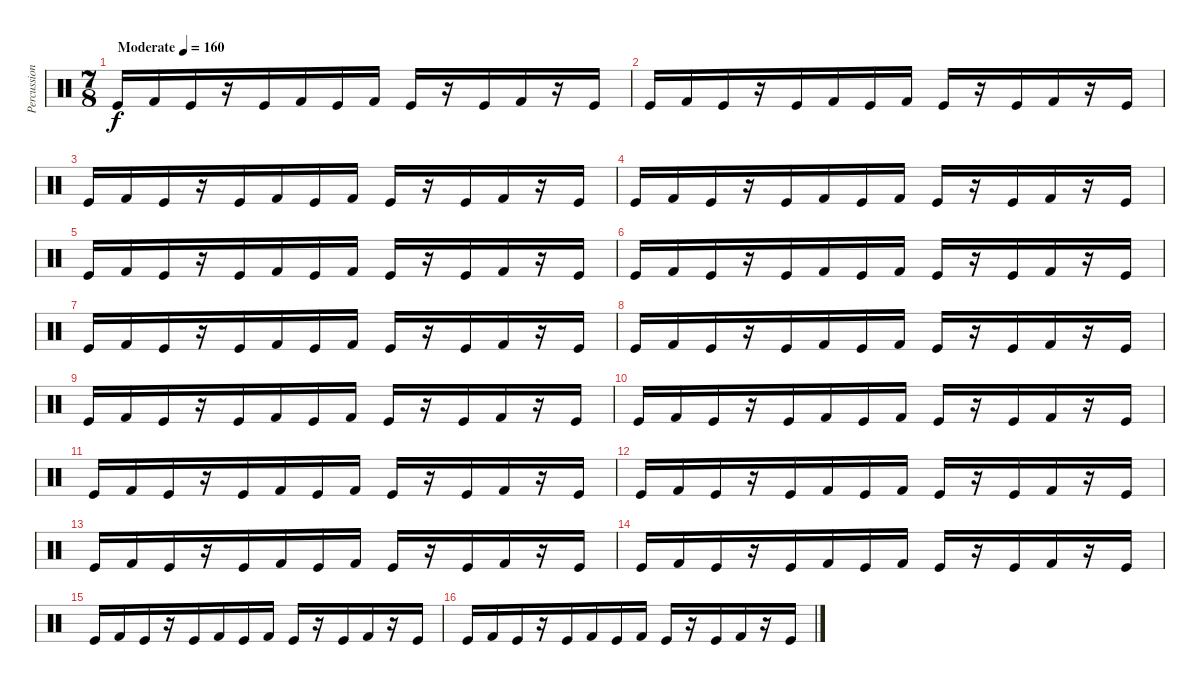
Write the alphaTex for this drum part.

\track ("Percussion" "Percussion") {instrument percussion}
\staff {score}
\articulation defaults
\ts (7 8)
\tempo (160 "Moderate")
\clef neutral
\ks c "Kick (hit)".16{dy f} "Kick (hit) 2".16 "Kick (hit)".16
r.16 "Kick (hit)".16 "Kick (hit) 2".16 "Kick (hit)".16 "Kick (hit) 2".16 "Kick (hit)".16 r.16 "Kick (hit)".16 "Kick (hit) 2".16 r.16 "Kick (hit)".16 |
"Kick (hit)".16 "Kick (hit) 2".16 "Kick (hit)".16 r.16 "Kick (hit)".16 "Kick (hit) 2".16 "Kick (hit)".16 "Kick (hit) 2".16 "Kick (hit)".16 r.16 "Kick (hit)".16 "Kick (hit) 2".16 r.16 "Kick (hit)".16 |
"Kick (hit)".16 "Kick (hit) 2".16 "Kick (hit)".16 r.16 "Kick (hit)".16 "Kick (hit) 2".16 "Kick (hit)".16 "Kick (hit) 2".16 "Kick (hit)".16 r.16 "Kick (hit)".16 "Kick (hit) 2".16 r.16 "Kick (hit)".16 |
"Kick (hit)".16 "Kick (hit) 2".16 "Kick (hit)".16 r.16 "Kick (hit)".16 "Kick (hit) 2".16 "Kick (hit)".16 "Kick (hit) 2".16 "Kick (hit)".16 r.16 "Kick (hit)".16 "Kick (hit) 2".16 r.16 "Kick (hit)".16 |
"Kick (hit)".16 "Kick (hit) 2".16 "Kick (hit)".16 r.16 "Kick (hit)".16 "Kick (hit) 2".16 "Kick (hit)".16 "Kick (hit) 2".16 "Kick (hit)".16 r.16 "Kick (hit)".16 "Kick (hit) 2".16 r.16 "Kick (hit)".16 |
"Kick (hit)".16 "Kick (hit) 2".16 "Kick (hit)".16 r.16 "Kick (hit)".16 "Kick (hit) 2".16 "Kick (hit)".16 "Kick (hit) 2".16 "Kick (hit)".16 r.16 "Kick (hit)".16 "Kick (hit) 2".16 r.16 "Kick (hit)".16 |
"Kick (hit)".16 "Kick (hit) 2".16 "Kick (hit)".16 r.16 "Kick (hit)".16 "Kick (hit) 2".16 "Kick (hit)".16 "Kick (hit) 2".16 "Kick (hit)".16 r.16 "Kick (hit)".16 "Kick (hit) 2".16 r.16 "Kick (hit)".16 |
"Kick (hit)".16 "Kick (hit) 2".16 "Kick (hit)".16 r.16 "Kick (hit)".16 "Kick (hit) 2".16 "Kick (hit)".16 "Kick (hit) 2".16 "Kick (hit)".16 r.16 "Kick (hit)".16 "Kick (hit) 2".16 r.16 "Kick (hit)".16 |
"Kick (hit)".16 "Kick (hit) 2".16 "Kick (hit)".16 r.16 "Kick (hit)".16 "Kick (hit) 2".16 "Kick (hit)".16 "Kick (hit) 2".16 "Kick (hit)".16 r.16 "Kick (hit)".16 "Kick (hit) 2".16 r.16 "Kick (hit)".16 |
"Kick (hit)".16 "Kick (hit) 2".16 "Kick (hit)".16 r.16 "Kick (hit)".16 "Kick (hit) 2".16 "Kick (hit)".16 "Kick (hit) 2".16 "Kick (hit)".16 r.16 "Kick (hit)".16 "Kick (hit) 2".16 r.16 "Kick (hit)".16 |
"Kick (hit)".16 "Kick (hit) 2".16 "Kick (hit)".16 r.16 "Kick (hit)".16 "Kick (hit) 2".16 "Kick (hit)".16 "Kick (hit) 2".16 "Kick (hit)".16 r.16 "Kick (hit)".16 "Kick (hit) 2".16 r.16 "Kick (hit)".16 |
"Kick (hit)".16 "Kick (hit) 2".16 "Kick (hit)".16 r.16 "Kick (hit)".16 "Kick (hit) 2".16 "Kick (hit)".16 "Kick (hit) 2".16 "Kick (hit)".16 r.16 "Kick (hit)".16 "Kick (hit) 2".16 r.16 "Kick (hit)".16 |
"Kick (hit)".16 "Kick (hit) 2".16 "Kick (hit)".16 r.16 "Kick (hit)".16 "Kick (hit) 2".16 "Kick (hit)".16 "Kick (hit) 2".16 "Kick (hit)".16 r.16 "Kick (hit)".16 "Kick (hit) 2".16 r.16 "Kick (hit)".16 |
"Kick (hit)".16 "Kick (hit) 2".16 "Kick (hit)".16 r.16 "Kick (hit)".16 "Kick (hit) 2".16 "Kick (hit)".16 "Kick (hit) 2".16 "Kick (hit)".16 r.16 "Kick (hit)".16 "Kick (hit) 2".16 r.16 "Kick (hit)".16 |
"Kick (hit)".16 "Kick (hit) 2".16 "Kick (hit)".16 r.16 "Kick (hit)".16 "Kick (hit) 2".16 "Kick (hit)".16 "Kick (hit) 2".16 "Kick (hit)".16 r.16 "Kick (hit)".16 "Kick (hit) 2".16 r.16 "Kick (hit)".16 |
"Kick (hit)".16 "Kick (hit) 2".16 "Kick (hit)".16 r.16 "Kick (hit)".16 "Kick (hit) 2".16 "Kick (hit)".16 "Kick (hit) 2".16 "Kick (hit)".16 r.16 "Kick (hit)".16 "Kick (hit) 2".16 r.16 "Kick (hit)".16
